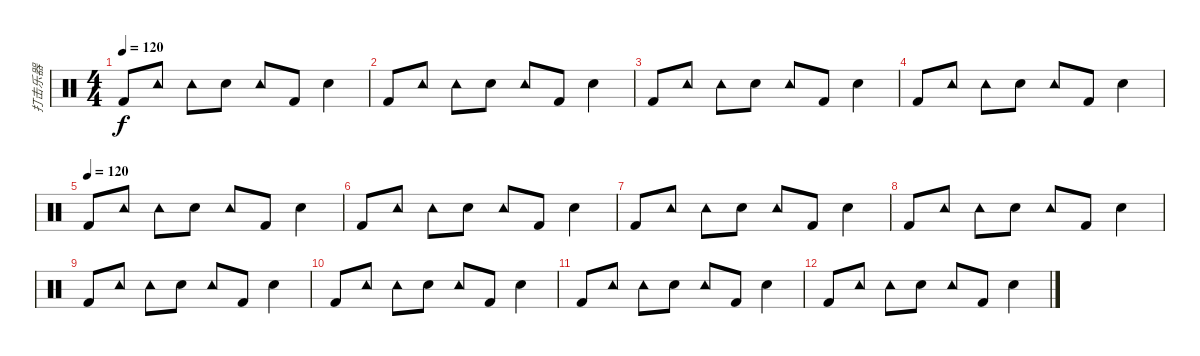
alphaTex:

\track ("打击乐器" "打击乐器") {instrument percussion}
\staff {score}
\articulation defaults
\ts (4 4)
\tempo 120
\clef neutral
\ks c "Kick (hit) 2".8{dy f} "Tambourine (hit)".8 "Tambourine (hit)".8 "Snare (hit) 2".8 "Tambourine (hit)".8 "Kick (hit) 2".8 "Snare (hit) 2".4
|
"Kick (hit) 2".8 "Tambourine (hit)".8 "Tambourine (hit)".8 "Snare (hit) 2".8 "Tambourine (hit)".8 "Kick (hit) 2".8 "Snare (hit) 2".4 |
"Kick (hit) 2".8 "Tambourine (hit)".8 "Tambourine (hit)".8 "Snare (hit) 2".8 "Tambourine (hit)".8 "Kick (hit) 2".8 "Snare (hit) 2".4 |
"Kick (hit) 2".8 "Tambourine (hit)".8 "Tambourine (hit)".8 "Snare (hit) 2".8 "Tambourine (hit)".8 "Kick (hit) 2".8 "Snare (hit) 2".4 |
\tempo (120)
"Kick (hit) 2".8 "Tambourine (hit)".8 "Tambourine (hit)".8 "Snare (hit) 2".8 "Tambourine (hit)".8 "Kick (hit) 2".8 "Snare (hit) 2".4 |
"Kick (hit) 2".8 "Tambourine (hit)".8 "Tambourine (hit)".8 "Snare (hit) 2".8 "Tambourine (hit)".8 "Kick (hit) 2".8 "Snare (hit) 2".4 |
"Kick (hit) 2".8 "Tambourine (hit)".8 "Tambourine (hit)".8 "Snare (hit) 2".8 "Tambourine (hit)".8 "Kick (hit) 2".8 "Snare (hit) 2".4 |
"Kick (hit) 2".8 "Tambourine (hit)".8 "Tambourine (hit)".8 "Snare (hit) 2".8 "Tambourine (hit)".8 "Kick (hit) 2".8 "Snare (hit) 2".4 |
"Kick (hit) 2".8 "Tambourine (hit)".8 "Tambourine (hit)".8 "Snare (hit) 2".8 "Tambourine (hit)".8 "Kick (hit) 2".8 "Snare (hit) 2".4 |
"Kick (hit) 2".8 "Tambourine (hit)".8 "Tambourine (hit)".8 "Snare (hit) 2".8 "Tambourine (hit)".8 "Kick (hit) 2".8 "Snare (hit) 2".4 |
"Kick (hit) 2".8 "Tambourine (hit)".8 "Tambourine (hit)".8 "Snare (hit) 2".8 "Tambourine (hit)".8 "Kick (hit) 2".8 "Snare (hit) 2".4 |
"Kick (hit) 2".8 "Tambourine (hit)".8 "Tambourine (hit)".8 "Snare (hit) 2".8 "Tambourine (hit)".8 "Kick (hit) 2".8 "Snare (hit) 2".4
